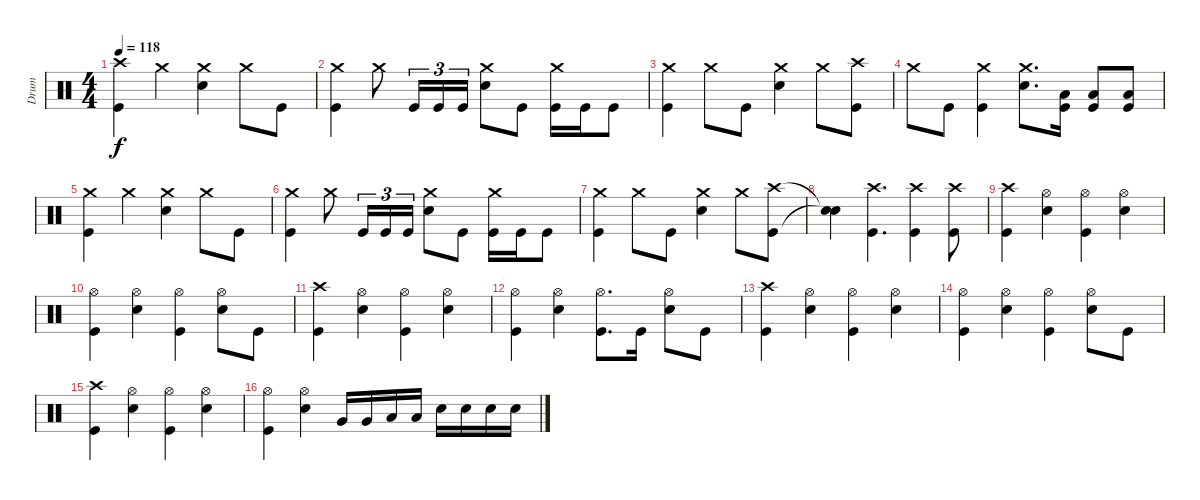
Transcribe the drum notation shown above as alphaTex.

\track ("Drum" "Drum") {instrument percussion}
\staff {score}
\articulation defaults
\ts (4 4)
\tempo 118
\clef neutral
\ks c
("Kick (hit)" "Crash high (hit)").4{dy f} "Crash medium (hit)".4 ("Crash medium (hit)" "Snare (hit) 2").4 "Crash medium (hit)".8 "Kick (hit)".8 |
("Kick (hit)" "Crash medium (hit)").4 "Crash medium (hit)".8 "Kick (hit)".16{tu (3 2)} "Kick (hit)".16{tu (3 2)} "Kick (hit)".16{tu (3 2)} ("Crash medium (hit)" "Snare (hit) 2").8 "Kick (hit)".8 ("Kick (hit)" "Crash medium (hit)").16 "Kick (hit)".16 "Kick (hit)".8 |
("Kick (hit)" "Crash medium (hit)").4 "Crash medium (hit)".8 "Kick (hit)".8 ("Crash medium (hit)" "Snare (hit) 2").4 "Crash medium (hit)".8 ("Kick (hit)" "Crash high (hit)").8 |
"Crash medium (hit)".8 "Kick (hit)".8 ("Kick (hit)" "Crash medium (hit)").4 ("Crash medium (hit)" "Snare (hit) 2").8{d} ("Kick (hit)" "Low Floor Tom (hit)").16 ("Kick (hit)" "Low Floor Tom (hit)").8 ("Kick (hit)" "Low Floor Tom (hit)").8 |
("Kick (hit)" "Crash medium (hit)").4 "Crash medium (hit)".4 ("Crash medium (hit)" "Snare (hit) 2").4 "Crash medium (hit)".8 "Kick (hit)".8 |
("Kick (hit)" "Crash medium (hit)").4 "Crash medium (hit)".8 "Kick (hit)".16{tu (3 2)} "Kick (hit)".16{tu (3 2)} "Kick (hit)".16{tu (3 2)} ("Crash medium (hit)" "Snare (hit) 2").8 "Kick (hit)".8 ("Kick (hit)" "Crash medium (hit)").16 "Kick (hit)".16 "Kick (hit)".8 |
("Kick (hit)" "Crash medium (hit)").4 "Crash medium (hit)".8 "Kick (hit)".8 ("Crash medium (hit)" "Snare (hit) 2").4 "Crash medium (hit)".8 ("Kick (hit)" "Crash high (hit)").8 |
("Snare (hit)"{t} "Snare (hit)"{t}).4 ("Kick (hit)" "Crash high (hit)").4{d} ("Kick (hit)" "Crash high (hit)").4 ("Kick (hit)" "Crash high (hit)").8 |
("Kick (hit)" "Crash high (hit)").4 ("Hi-Hat (open)" "Snare (hit) 2").4 ("Kick (hit)" "Hi-Hat (open)").4 ("Hi-Hat (open)" "Snare (hit) 2").4 |
("Kick (hit)" "Hi-Hat (open)").4 ("Hi-Hat (open)" "Snare (hit) 2").4 ("Kick (hit)" "Hi-Hat (open)").4 ("Hi-Hat (open)" "Snare (hit) 2").8 "Kick (hit)".8 |
("Kick (hit)" "Crash high (hit)").4 ("Hi-Hat (open)" "Snare (hit) 2").4 ("Kick (hit)" "Hi-Hat (open)").4 ("Hi-Hat (open)" "Snare (hit) 2").4 |
("Kick (hit)" "Hi-Hat (open)").4 ("Hi-Hat (open)" "Snare (hit) 2").4 ("Kick (hit)" "Hi-Hat (open)").8{d} "Kick (hit)".16 ("Hi-Hat (open)" "Snare (hit) 2").8 "Kick (hit)".8 |
("Kick (hit)" "Crash high (hit)").4 ("Hi-Hat (open)" "Snare (hit) 2").4 ("Kick (hit)" "Hi-Hat (open)").4 ("Hi-Hat (open)" "Snare (hit) 2").4 |
("Kick (hit)" "Hi-Hat (open)").4 ("Hi-Hat (open)" "Snare (hit) 2").4 ("Kick (hit)" "Hi-Hat (open)").4 ("Hi-Hat (open)" "Snare (hit) 2").8 "Kick (hit)".8 |
("Kick (hit)" "Crash high (hit)").4 ("Hi-Hat (open)" "Snare (hit) 2").4 ("Kick (hit)" "Hi-Hat (open)").4 ("Hi-Hat (open)" "Snare (hit) 2").4 |
("Kick (hit)" "Hi-Hat (open)").4 ("Hi-Hat (open)" "Snare (hit) 2").4 "Very Low Tom (hit)".16 "Very Low Tom (hit)".16 "Low Floor Tom (hit)".16 "Low Floor Tom (hit)".16 "Snare (hit) 2".16 "Snare (hit) 2".16 "Snare (hit) 2".16 "Snare (hit) 2".16
